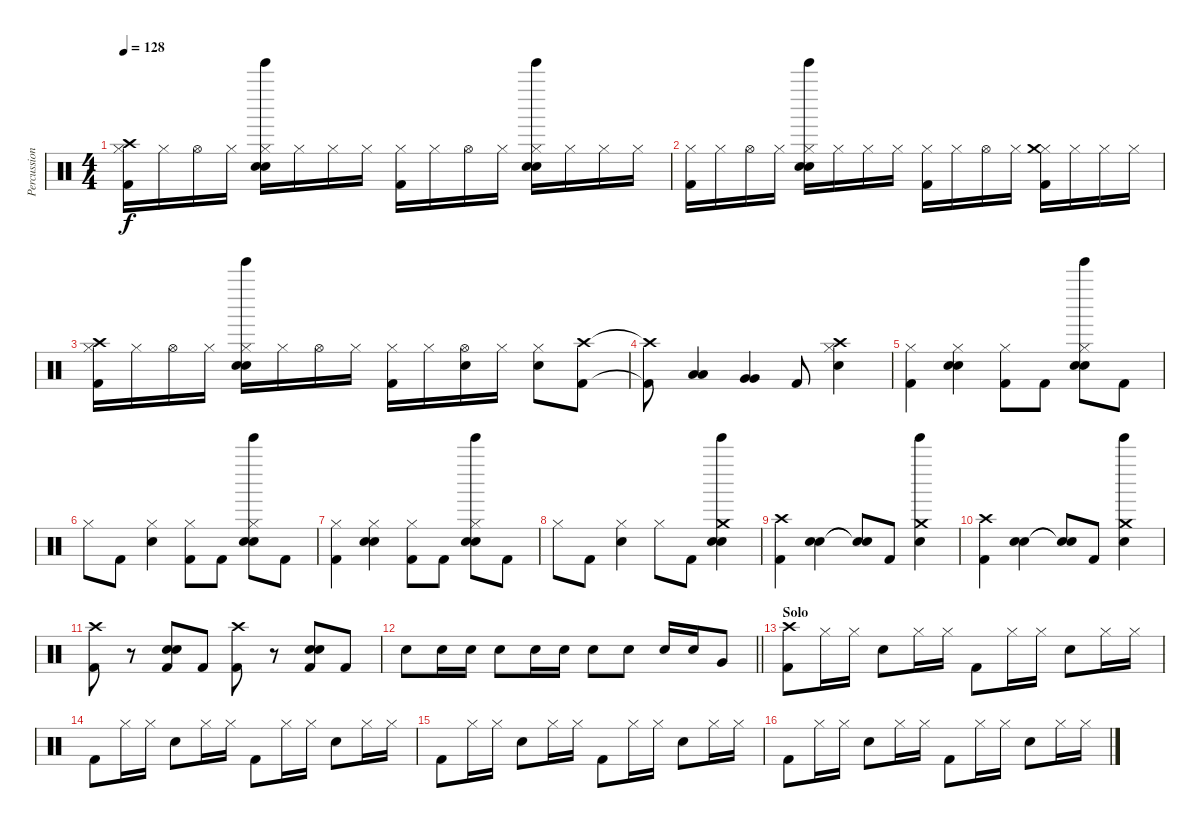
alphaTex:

\track ("Percussion" "Percussion") {instrument percussion}
\staff {score}
\articulation defaults
\ts (4 4)
\tempo 128
\clef neutral
\ks c
("Hi-Hat (closed)" "Crash high (hit)" "Kick (hit) 2").16{dy f} "Hi-Hat (closed)".16 "Hi-Hat (open)".16 "Hi-Hat (closed)".16 ("Hi-Hat (closed)" "Hand Clap (hit)" "Tinkle Bell (hit)" "Electric Snare (hit)").16 "Hi-Hat (closed)".16 "Hi-Hat (closed)".16 "Hi-Hat (closed)".16 ("Hi-Hat (closed)" "Kick (hit) 2").16 "Hi-Hat (closed)".16 "Hi-Hat (open)".16 "Hi-Hat (closed)".16 ("Hi-Hat (closed)" "Hand Clap (hit)" "Tinkle Bell (hit)" "Electric Snare (hit)").16 "Hi-Hat (closed)".16 "Hi-Hat (closed)".16 "Hi-Hat (closed)".16 |
("Hi-Hat (closed)" "Kick (hit) 2").16 "Hi-Hat (closed)".16 "Hi-Hat (open)".16 "Hi-Hat (closed)".16 ("Hi-Hat (closed)" "Hand Clap (hit)" "Tinkle Bell (hit)" "Electric Snare (hit)").16 "Hi-Hat (closed)".16 "Hi-Hat (closed)".16 "Hi-Hat (closed)".16 ("Hi-Hat (closed)" "Kick (hit) 2").16 "Hi-Hat (closed)".16 "Hi-Hat (open)".16 "Hi-Hat (closed)".16 ("Hi-Hat (closed)" "Crash medium (hit)" "Kick (hit) 2").16 "Hi-Hat (closed)".16 "Hi-Hat (closed)".16 "Hi-Hat (closed)".16 |
("Hi-Hat (closed)" "Crash high (hit)" "Kick (hit) 2").16 "Hi-Hat (closed)".16 "Hi-Hat (open)".16 "Hi-Hat (closed)".16 ("Hi-Hat (closed)" "Hand Clap (hit)" "Tinkle Bell (hit)" "Electric Snare (hit)").16 "Hi-Hat (closed)".16 "Hi-Hat (open)".16 "Hi-Hat (closed)".16 ("Hi-Hat (closed)" "Kick (hit) 2").16 "Hi-Hat (closed)".16 ("Hi-Hat (open)" "Electric Snare (hit)").16 "Hi-Hat (closed)".16 ("Hi-Hat (closed)" "Electric Snare (hit)").8 ("Crash high (hit)" "Kick (hit) 2").8 |
("Crash high (hit)"{t} "Kick (hit) 2"{t}).8 ("Low Tom (hit)" "Low Tom (hit)").4{bd 240} ("Very Low Tom (hit)" "Very Low Tom (hit)").4{bd 240} "Kick (hit) 2".8 ("Hi-Hat (closed)" "Crash high (hit)" "Electric Snare (hit)").4 |
("Hi-Hat (closed)" "Kick (hit) 2").4 ("Hi-Hat (closed)" "Hand Clap (hit)" "Electric Snare (hit)").4 ("Hi-Hat (closed)" "Kick (hit) 2").8 "Kick (hit) 2".8 ("Hi-Hat (closed)" "Hand Clap (hit)" "Electric Snare (hit)" "Tinkle Bell (hit)").8 "Kick (hit) 2".8 |
"Hi-Hat (closed)".8 "Kick (hit) 2".8 ("Hi-Hat (closed)" "Electric Snare (hit)").4 ("Hi-Hat (closed)" "Kick (hit) 2").8 "Kick (hit) 2".8 ("Hi-Hat (closed)" "Hand Clap (hit)" "Electric Snare (hit)" "Tinkle Bell (hit)").8 "Kick (hit) 2".8 |
("Hi-Hat (closed)" "Kick (hit) 2").4 ("Hi-Hat (closed)" "Hand Clap (hit)" "Electric Snare (hit)").4 ("Hi-Hat (closed)" "Kick (hit) 2").8 "Kick (hit) 2".8 ("Hi-Hat (closed)" "Hand Clap (hit)" "Electric Snare (hit)" "Tinkle Bell (hit)").8 "Kick (hit) 2".8 |
"Hi-Hat (closed)".8 "Kick (hit) 2".8 ("Hi-Hat (closed)" "Electric Snare (hit)").4 "Hi-Hat (closed)".8 "Kick (hit) 2".8 ("Crash medium (hit)" "Hand Clap (hit)" "Electric Snare (hit)" "Tinkle Bell (hit)").4 |
("Crash high (hit)" "Kick (hit) 2").4 ("Electric Snare (hit)" "Hand Clap (hit)").4 ("Snare (hit)"{t} "Snare (hit)"{t}).8 "Kick (hit) 2".8 ("Crash medium (hit)" "Electric Snare (hit)" "Tinkle Bell (hit)").4 |
("Crash high (hit)" "Kick (hit) 2").4 ("Electric Snare (hit)" "Hand Clap (hit)").4 ("Snare (hit)"{t} "Snare (hit)"{t}).8 "Kick (hit) 2".8 ("Crash medium (hit)" "Electric Snare (hit)" "Tinkle Bell (hit)").4 |
("Crash high (hit)" "Kick (hit) 2").8 r.8 ("Hand Clap (hit)" "Electric Snare (hit)" "Kick (hit) 2").8 "Kick (hit) 2".8 ("Crash high (hit)" "Kick (hit) 2").8 r.8 ("Hand Clap (hit)" "Electric Snare (hit)" "Kick (hit) 2").8 "Kick (hit) 2".8 |
\barLineRight lightlight "Electric Snare (hit)".8 "Electric Snare (hit)".16 "Electric Snare (hit)".16 "Electric Snare (hit)".8 "Electric Snare (hit)".16 "Electric Snare (hit)".16 "Electric Snare (hit)".8 "Electric Snare (hit)".8 "Electric Snare (hit)".16 "Electric Snare (hit)".16 "Very Low Tom (hit)".8
|
\section ("" "Solo")
("Crash high (hit)" "Kick (hit) 2").8 "Hi-Hat (closed)".16 "Hi-Hat (closed)".16 "Electric Snare (hit)".8 "Hi-Hat (closed)".16 "Hi-Hat (closed)".16 "Kick (hit) 2".8 "Hi-Hat (closed)".16 "Hi-Hat (closed)".16 "Electric Snare (hit)".8 "Hi-Hat (closed)".16 "Hi-Hat (closed)".16 |
"Kick (hit) 2".8 "Hi-Hat (closed)".16 "Hi-Hat (closed)".16 "Electric Snare (hit)".8 "Hi-Hat (closed)".16 "Hi-Hat (closed)".16 "Kick (hit) 2".8 "Hi-Hat (closed)".16 "Hi-Hat (closed)".16 "Electric Snare (hit)".8 "Hi-Hat (closed)".16 "Hi-Hat (closed)".16 |
"Kick (hit) 2".8 "Hi-Hat (closed)".16 "Hi-Hat (closed)".16 "Electric Snare (hit)".8 "Hi-Hat (closed)".16 "Hi-Hat (closed)".16 "Kick (hit) 2".8 "Hi-Hat (closed)".16 "Hi-Hat (closed)".16 "Electric Snare (hit)".8 "Hi-Hat (closed)".16 "Hi-Hat (closed)".16 |
"Kick (hit) 2".8 "Hi-Hat (closed)".16 "Hi-Hat (closed)".16 "Electric Snare (hit)".8 "Hi-Hat (closed)".16 "Hi-Hat (closed)".16 "Kick (hit) 2".8 "Hi-Hat (closed)".16 "Hi-Hat (closed)".16 "Electric Snare (hit)".8 "Hi-Hat (closed)".16 "Hi-Hat (closed)".16
